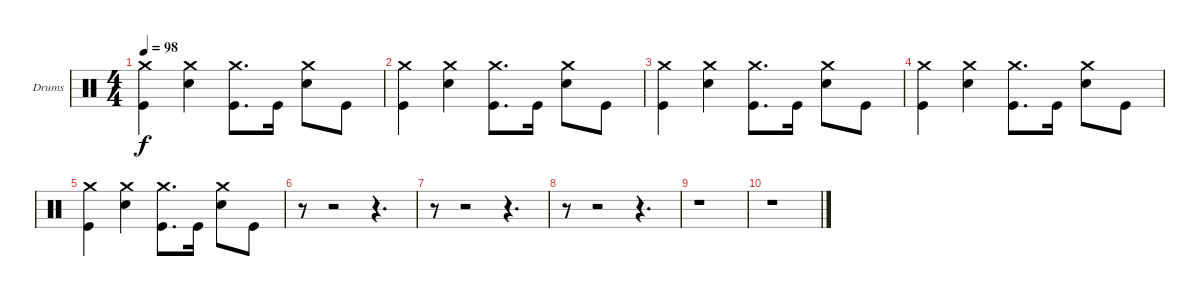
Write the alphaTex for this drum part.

\bracketExtendMode groupsimilarinstruments
\firstSystemTrackNameOrientation horizontal
\otherSystemsTrackNameOrientation horizontal
\track ("Drumkit" "Drums") {instrument percussion}
\staff {score}
\articulation defaults
\ts (4 4)
\tempo 98
\clef neutral
\ks c
("Crash medium (hit)" "Kick (hit)").4{dy f} ("Crash medium (hit)" "Snare (hit) 2").4 ("Crash medium (hit)" "Kick (hit)").8{d} "Kick (hit)".16 ("Crash medium (hit)" "Snare (hit) 2").8 "Kick (hit)".8 |
("Crash medium (hit)" "Kick (hit)").4 ("Crash medium (hit)" "Snare (hit) 2").4 ("Crash medium (hit)" "Kick (hit)").8{d} "Kick (hit)".16 ("Crash medium (hit)" "Snare (hit) 2").8 "Kick (hit)".8 |
("Crash medium (hit)" "Kick (hit)").4 ("Crash medium (hit)" "Snare (hit) 2").4 ("Crash medium (hit)" "Kick (hit)").8{d} "Kick (hit)".16 ("Crash medium (hit)" "Snare (hit) 2").8 "Kick (hit)".8 |
("Crash medium (hit)" "Kick (hit)").4 ("Crash medium (hit)" "Snare (hit) 2").4 ("Crash medium (hit)" "Kick (hit)").8{d} "Kick (hit)".16 ("Crash medium (hit)" "Snare (hit) 2").8 "Kick (hit)".8 |
("Crash medium (hit)" "Kick (hit)").4 ("Crash medium (hit)" "Snare (hit) 2").4 ("Crash medium (hit)" "Kick (hit)").8{d} "Kick (hit)".16 ("Crash medium (hit)" "Snare (hit) 2").8 "Kick (hit)".8 |
r.8 r.2 r.4{d} |
r.8 r.2 r.4{d} |
r.8 r.2 r.4{d} |
r.1 |
r.1
